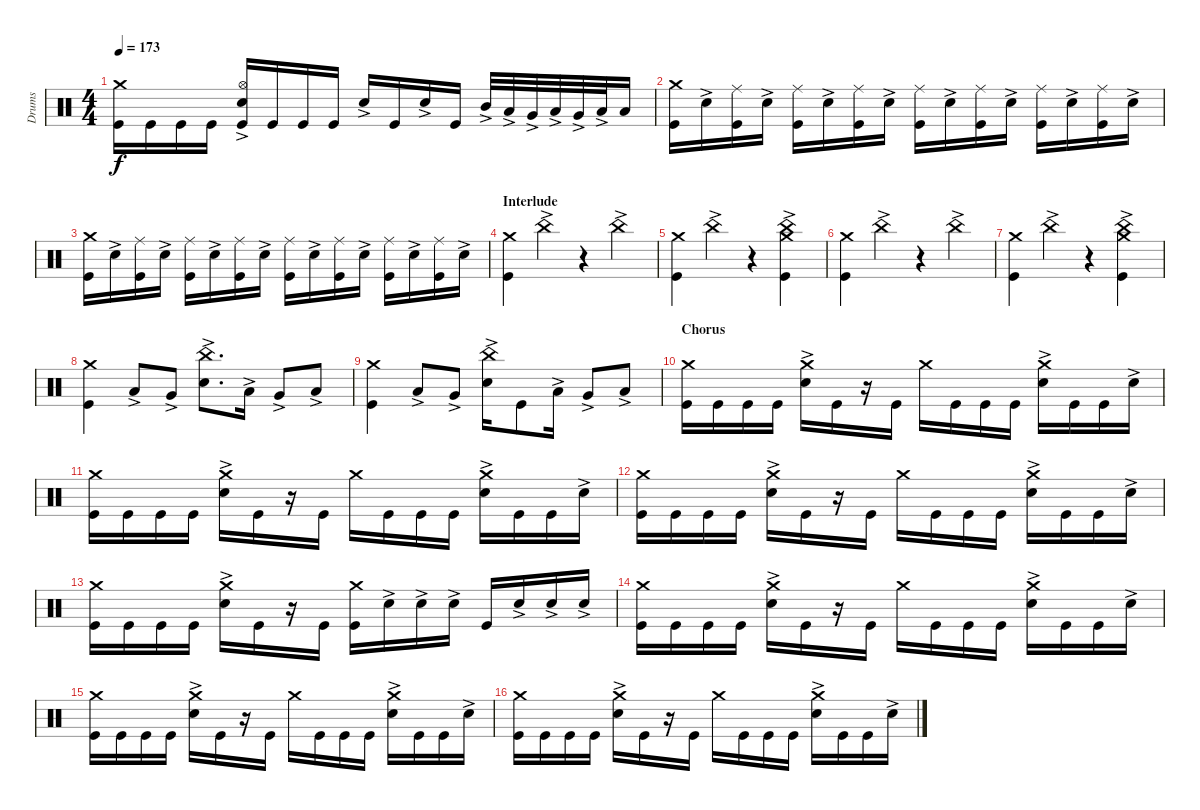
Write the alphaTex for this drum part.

\track ("Drums" "Drums") {instrument percussion}
\staff {score}
\articulation defaults
\ts (4 4)
\tempo 173
\clef neutral
\ks c
("Kick (hit)" "Crash medium (hit)").16{dy f} "Kick (hit)".16 "Kick (hit)".16 "Kick (hit)".16 ("Kick (hit)" "Hi-Hat (open)" "Snare (hit) 2"{ac}).16 "Kick (hit)".16 "Kick (hit)".16 "Kick (hit)".16 "Snare (hit) 2"{ac}.16 "Kick (hit)".16 "Snare (hit) 2"{ac}.16 "Kick (hit)".16 "Mid Tom (hit)"{ac}.32 "Low Tom (hit)"{ac}.32 "Very Low Tom (hit)"{ac}.32 "Low Tom (hit)"{ac}.32 "Very Low Tom (hit)"{ac}.32 "Low Floor Tom (hit)"{ac}.32 "Low Floor Tom (hit)".16 |
("Kick (hit)" "Crash medium (hit)").16 "Snare (hit) 2"{ac}.16 ("Kick (hit)" "Ride (middle)").16 "Snare (hit) 2"{ac}.16 ("Kick (hit)" "Ride (middle)").16 "Snare (hit) 2"{ac}.16 ("Kick (hit)" "Ride (middle)").16 "Snare (hit) 2"{ac}.16 ("Kick (hit)" "Ride (middle)").16 "Snare (hit) 2"{ac}.16 ("Kick (hit)" "Ride (middle)").16 "Snare (hit) 2"{ac}.16 ("Kick (hit)" "Ride (middle)").16 "Snare (hit) 2"{ac}.16 ("Kick (hit)" "Ride (middle)").16 "Snare (hit) 2"{ac}.16 |
("Kick (hit)" "Crash medium (hit)").16 "Snare (hit) 2"{ac}.16 ("Kick (hit)" "Ride (middle)").16 "Snare (hit) 2"{ac}.16 ("Kick (hit)" "Ride (middle)").16 "Snare (hit) 2"{ac}.16 ("Kick (hit)" "Ride (middle)").16 "Snare (hit) 2"{ac}.16 ("Kick (hit)" "Ride (middle)").16 "Snare (hit) 2"{ac}.16 ("Kick (hit)" "Ride (middle)").16 "Snare (hit) 2"{ac}.16 ("Kick (hit)" "Ride (middle)").16 "Snare (hit) 2"{ac}.16 ("Kick (hit)" "Ride (middle)").16 "Snare (hit) 2"{ac}.16 |
\section ("" "Interlude")
("Kick (hit)" "Crash medium (hit)").4 "China (hit)"{ac}.4 r.4 "China (hit)"{ac}.4 |
("Crash medium (hit)" "Kick (hit)").4 "China (hit)"{ac}.4 r.4 ("China (hit)"{ac} "Kick (hit)" "Crash medium (hit)").4 |
("Crash medium (hit)" "Kick (hit)").4 "China (hit)"{ac}.4 r.4 "China (hit)"{ac}.4 |
("Crash medium (hit)" "Kick (hit)").4 "China (hit)"{ac}.4 r.4 ("China (hit)"{ac} "Kick (hit)" "Crash medium (hit)").4 |
("Kick (hit)" "Crash medium (hit)").4 "Low Tom (hit)"{ac}.8 "Very Low Tom (hit)"{ac}.8 ("Snare (hit) 2"{ac} "China (hit)"{ac}).8{d} "Low Tom (hit)"{ac}.16 "Very Low Tom (hit)"{ac}.8 "Low Floor Tom (hit)"{ac}.8 |
("Kick (hit)" "Crash medium (hit)").4 "Low Tom (hit)"{ac}.8 "Very Low Tom (hit)"{ac}.8 ("Snare (hit) 2"{ac} "China (hit)"{ac}).16 "Kick (hit)".8 "Low Tom (hit)"{ac}.16 "Very Low Tom (hit)"{ac}.8 "Low Floor Tom (hit)"{ac}.8 |
\section ("" "Chorus")
("Crash medium (hit)" "Kick (hit)").16 "Kick (hit)".16 "Kick (hit)".16 "Kick (hit)".16 ("Crash medium (hit)" "Snare (hit) 2"{ac}).16 "Kick (hit)".16 r.16 "Kick (hit)".16 "Crash medium (hit)".16 "Kick (hit)".16 "Kick (hit)".16 "Kick (hit)".16 ("Crash medium (hit)" "Snare (hit) 2"{ac}).16 "Kick (hit)".16 "Kick (hit)".16 "Snare (hit) 2"{ac}.16 |
("Crash medium (hit)" "Kick (hit)").16 "Kick (hit)".16 "Kick (hit)".16 "Kick (hit)".16 ("Crash medium (hit)" "Snare (hit) 2"{ac}).16 "Kick (hit)".16 r.16 "Kick (hit)".16 "Crash medium (hit)".16 "Kick (hit)".16 "Kick (hit)".16 "Kick (hit)".16 ("Crash medium (hit)" "Snare (hit) 2"{ac}).16 "Kick (hit)".16 "Kick (hit)".16 "Snare (hit) 2"{ac}.16 |
("Crash medium (hit)" "Kick (hit)").16 "Kick (hit)".16 "Kick (hit)".16 "Kick (hit)".16 ("Crash medium (hit)" "Snare (hit) 2"{ac}).16 "Kick (hit)".16 r.16 "Kick (hit)".16 "Crash medium (hit)".16 "Kick (hit)".16 "Kick (hit)".16 "Kick (hit)".16 ("Crash medium (hit)" "Snare (hit) 2"{ac}).16 "Kick (hit)".16 "Kick (hit)".16 "Snare (hit) 2"{ac}.16 |
("Crash medium (hit)" "Kick (hit)").16 "Kick (hit)".16 "Kick (hit)".16 "Kick (hit)".16 ("Crash medium (hit)" "Snare (hit) 2"{ac}).16 "Kick (hit)".16 r.16 "Kick (hit)".16 ("Kick (hit)" "Crash medium (hit)").16 "Snare (hit) 2"{ac}.16 "Snare (hit) 2"{ac}.16 "Snare (hit) 2"{ac}.16 "Kick (hit)".16 "Snare (hit) 2"{ac}.16 "Snare (hit) 2"{ac}.16 "Snare (hit) 2"{ac}.16 |
("Crash medium (hit)" "Kick (hit)").16 "Kick (hit)".16 "Kick (hit)".16 "Kick (hit)".16 ("Crash medium (hit)" "Snare (hit) 2"{ac}).16 "Kick (hit)".16 r.16 "Kick (hit)".16 "Crash medium (hit)".16 "Kick (hit)".16 "Kick (hit)".16 "Kick (hit)".16 ("Crash medium (hit)" "Snare (hit) 2"{ac}).16 "Kick (hit)".16 "Kick (hit)".16 "Snare (hit) 2"{ac}.16 |
("Crash medium (hit)" "Kick (hit)").16 "Kick (hit)".16 "Kick (hit)".16 "Kick (hit)".16 ("Crash medium (hit)" "Snare (hit) 2"{ac}).16 "Kick (hit)".16 r.16 "Kick (hit)".16 "Crash medium (hit)".16 "Kick (hit)".16 "Kick (hit)".16 "Kick (hit)".16 ("Crash medium (hit)" "Snare (hit) 2"{ac}).16 "Kick (hit)".16 "Kick (hit)".16 "Snare (hit) 2"{ac}.16 |
("Crash medium (hit)" "Kick (hit)").16 "Kick (hit)".16 "Kick (hit)".16 "Kick (hit)".16 ("Crash medium (hit)" "Snare (hit) 2"{ac}).16 "Kick (hit)".16 r.16 "Kick (hit)".16 "Crash medium (hit)".16 "Kick (hit)".16 "Kick (hit)".16 "Kick (hit)".16 ("Crash medium (hit)" "Snare (hit) 2"{ac}).16 "Kick (hit)".16 "Kick (hit)".16 "Snare (hit) 2"{ac}.16
